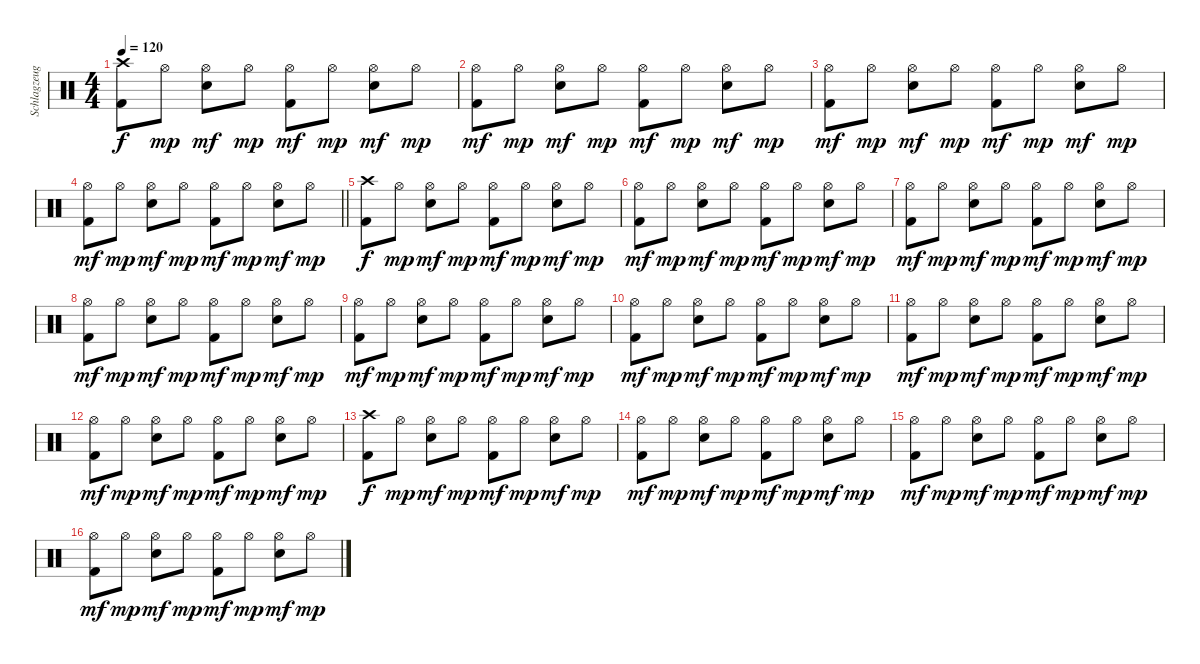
\track ("Schlagzeug" "Schlagzeug") {instrument percussion}
\staff {score}
\articulation defaults
\ts (4 4)
\tempo 120
\clef neutral
\ks c
("Crash high (hit)" "Kick (hit) 2").8{dy f} "Hi-Hat (open)".8{dy mp} ("Hi-Hat (open)" "Electric Snare (hit)").8{dy mf} "Hi-Hat (open)".8{dy mp} ("Hi-Hat (open)" "Kick (hit) 2").8{dy mf} "Hi-Hat (open)".8{dy mp} ("Hi-Hat (open)" "Electric Snare (hit)").8{dy mf} "Hi-Hat (open)".8{dy mp} |
("Hi-Hat (open)" "Kick (hit) 2").8{dy mf} "Hi-Hat (open)".8{dy mp} ("Hi-Hat (open)" "Electric Snare (hit)").8{dy mf} "Hi-Hat (open)".8{dy mp} ("Hi-Hat (open)" "Kick (hit) 2").8{dy mf} "Hi-Hat (open)".8{dy mp} ("Hi-Hat (open)" "Electric Snare (hit)").8{dy mf} "Hi-Hat (open)".8{dy mp} |
("Hi-Hat (open)" "Kick (hit) 2").8{dy mf} "Hi-Hat (open)".8{dy mp} ("Hi-Hat (open)" "Electric Snare (hit)").8{dy mf} "Hi-Hat (open)".8{dy mp} ("Hi-Hat (open)" "Kick (hit) 2").8{dy mf} "Hi-Hat (open)".8{dy mp} ("Hi-Hat (open)" "Electric Snare (hit)").8{dy mf} "Hi-Hat (open)".8{dy mp} |
\barLineRight lightlight
("Hi-Hat (open)" "Kick (hit) 2").8{dy mf} "Hi-Hat (open)".8{dy mp} ("Hi-Hat (open)" "Electric Snare (hit)").8{dy mf} "Hi-Hat (open)".8{dy mp} ("Hi-Hat (open)" "Kick (hit) 2").8{dy mf} "Hi-Hat (open)".8{dy mp} ("Hi-Hat (open)" "Electric Snare (hit)").8{dy mf} "Hi-Hat (open)".8{dy mp} |
("Crash high (hit)" "Kick (hit) 2").8{dy f} "Hi-Hat (open)".8{dy mp} ("Hi-Hat (open)" "Electric Snare (hit)").8{dy mf} "Hi-Hat (open)".8{dy mp} ("Hi-Hat (open)" "Kick (hit) 2").8{dy mf} "Hi-Hat (open)".8{dy mp} ("Hi-Hat (open)" "Electric Snare (hit)").8{dy mf} "Hi-Hat (open)".8{dy mp} |
("Hi-Hat (open)" "Kick (hit) 2").8{dy mf} "Hi-Hat (open)".8{dy mp} ("Hi-Hat (open)" "Electric Snare (hit)").8{dy mf} "Hi-Hat (open)".8{dy mp} ("Hi-Hat (open)" "Kick (hit) 2").8{dy mf} "Hi-Hat (open)".8{dy mp} ("Hi-Hat (open)" "Electric Snare (hit)").8{dy mf} "Hi-Hat (open)".8{dy mp} |
("Hi-Hat (open)" "Kick (hit) 2").8{dy mf} "Hi-Hat (open)".8{dy mp} ("Hi-Hat (open)" "Electric Snare (hit)").8{dy mf} "Hi-Hat (open)".8{dy mp} ("Hi-Hat (open)" "Kick (hit) 2").8{dy mf} "Hi-Hat (open)".8{dy mp} ("Hi-Hat (open)" "Electric Snare (hit)").8{dy mf} "Hi-Hat (open)".8{dy mp} |
("Hi-Hat (open)" "Kick (hit) 2").8{dy mf} "Hi-Hat (open)".8{dy mp} ("Hi-Hat (open)" "Electric Snare (hit)").8{dy mf} "Hi-Hat (open)".8{dy mp} ("Hi-Hat (open)" "Kick (hit) 2").8{dy mf} "Hi-Hat (open)".8{dy mp} ("Hi-Hat (open)" "Electric Snare (hit)").8{dy mf} "Hi-Hat (open)".8{dy mp} |
("Hi-Hat (open)" "Kick (hit) 2").8{dy mf} "Hi-Hat (open)".8{dy mp} ("Hi-Hat (open)" "Electric Snare (hit)").8{dy mf} "Hi-Hat (open)".8{dy mp} ("Hi-Hat (open)" "Kick (hit) 2").8{dy mf} "Hi-Hat (open)".8{dy mp} ("Hi-Hat (open)" "Electric Snare (hit)").8{dy mf} "Hi-Hat (open)".8{dy mp} |
("Hi-Hat (open)" "Kick (hit) 2").8{dy mf} "Hi-Hat (open)".8{dy mp} ("Hi-Hat (open)" "Electric Snare (hit)").8{dy mf} "Hi-Hat (open)".8{dy mp} ("Hi-Hat (open)" "Kick (hit) 2").8{dy mf} "Hi-Hat (open)".8{dy mp} ("Hi-Hat (open)" "Electric Snare (hit)").8{dy mf} "Hi-Hat (open)".8{dy mp} |
("Hi-Hat (open)" "Kick (hit) 2").8{dy mf} "Hi-Hat (open)".8{dy mp} ("Hi-Hat (open)" "Electric Snare (hit)").8{dy mf} "Hi-Hat (open)".8{dy mp} ("Hi-Hat (open)" "Kick (hit) 2").8{dy mf} "Hi-Hat (open)".8{dy mp} ("Hi-Hat (open)" "Electric Snare (hit)").8{dy mf} "Hi-Hat (open)".8{dy mp} |
("Hi-Hat (open)" "Kick (hit) 2").8{dy mf} "Hi-Hat (open)".8{dy mp} ("Hi-Hat (open)" "Electric Snare (hit)").8{dy mf} "Hi-Hat (open)".8{dy mp} ("Hi-Hat (open)" "Kick (hit) 2").8{dy mf} "Hi-Hat (open)".8{dy mp} ("Hi-Hat (open)" "Electric Snare (hit)").8{dy mf} "Hi-Hat (open)".8{dy mp} |
("Crash high (hit)" "Kick (hit) 2").8{dy f} "Hi-Hat (open)".8{dy mp} ("Hi-Hat (open)" "Electric Snare (hit)").8{dy mf} "Hi-Hat (open)".8{dy mp} ("Hi-Hat (open)" "Kick (hit) 2").8{dy mf} "Hi-Hat (open)".8{dy mp} ("Hi-Hat (open)" "Electric Snare (hit)").8{dy mf} "Hi-Hat (open)".8{dy mp} |
("Hi-Hat (open)" "Kick (hit) 2").8{dy mf} "Hi-Hat (open)".8{dy mp} ("Hi-Hat (open)" "Electric Snare (hit)").8{dy mf} "Hi-Hat (open)".8{dy mp} ("Hi-Hat (open)" "Kick (hit) 2").8{dy mf} "Hi-Hat (open)".8{dy mp} ("Hi-Hat (open)" "Electric Snare (hit)").8{dy mf} "Hi-Hat (open)".8{dy mp} |
("Hi-Hat (open)" "Kick (hit) 2").8{dy mf} "Hi-Hat (open)".8{dy mp} ("Hi-Hat (open)" "Electric Snare (hit)").8{dy mf} "Hi-Hat (open)".8{dy mp} ("Hi-Hat (open)" "Kick (hit) 2").8{dy mf} "Hi-Hat (open)".8{dy mp} ("Hi-Hat (open)" "Electric Snare (hit)").8{dy mf} "Hi-Hat (open)".8{dy mp} |
("Hi-Hat (open)" "Kick (hit) 2").8{dy mf} "Hi-Hat (open)".8{dy mp} ("Hi-Hat (open)" "Electric Snare (hit)").8{dy mf} "Hi-Hat (open)".8{dy mp} ("Hi-Hat (open)" "Kick (hit) 2").8{dy mf} "Hi-Hat (open)".8{dy mp} ("Hi-Hat (open)" "Electric Snare (hit)").8{dy mf} "Hi-Hat (open)".8{dy mp}
